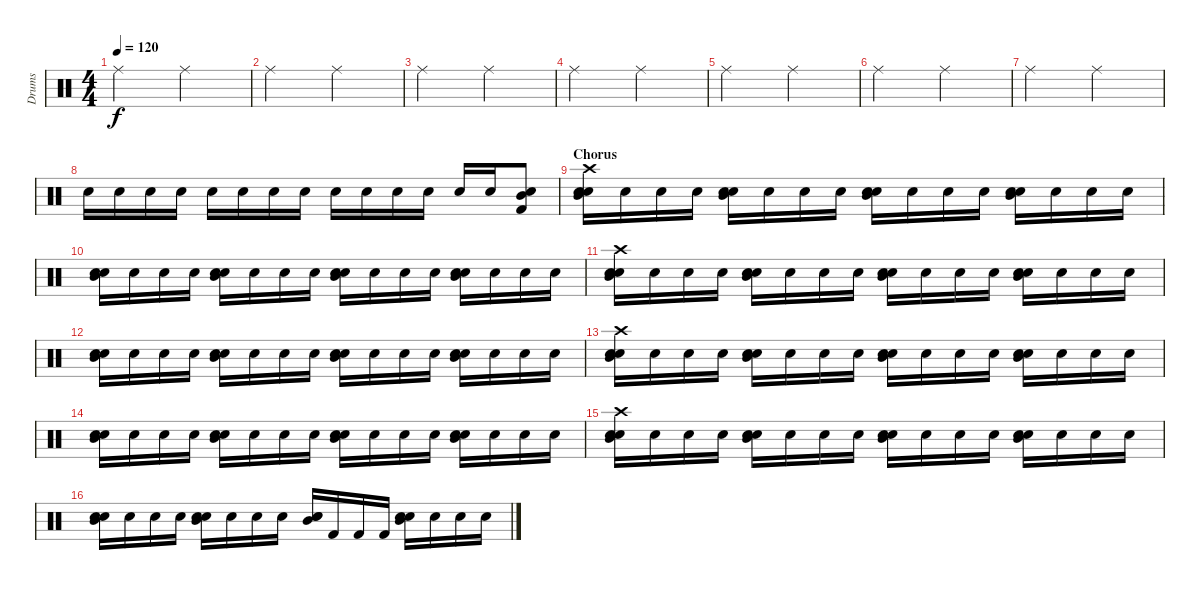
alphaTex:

\track ("Drums" "Drums") {instrument percussion}
\staff {score}
\articulation defaults
\ts (4 4)
\tempo 120
\clef neutral
\ks c "Ride (middle)".2{dy f} "Ride (middle)".2
|
"Ride (middle)".2 "Ride (middle)".2 |
"Ride (middle)".2 "Ride (middle)".2 |
"Ride (middle)".2 "Ride (middle)".2 |
"Ride (middle)".2 "Ride (middle)".2 |
"Ride (middle)".2 "Ride (middle)".2 |
"Ride (middle)".2 "Ride (middle)".2 |
"Snare (hit) 2".16 "Snare (hit) 2".16 "Snare (hit) 2".16 "Snare (hit) 2".16 "Snare (hit) 2".16 "Snare (hit) 2".16 "Snare (hit) 2".16 "Snare (hit) 2".16 "Snare (hit) 2".16 "Snare (hit) 2".16 "Snare (hit) 2".16 "Snare (hit) 2".16 "Snare (hit) 2".16 "Snare (hit) 2".16 ("Electric Snare (hit)" "Mid Tom (hit)" "Kick (hit) 2").8 |
\section ("" "Chorus")
("Electric Snare (hit)" "Snare (hit) 2" "Mid Tom (hit)" "Crash high (hit)").16 "Snare (hit) 2".16 "Snare (hit) 2".16 "Snare (hit) 2".16 ("Mid Tom (hit)" "Snare (hit) 2" "Electric Snare (hit)").16 "Snare (hit) 2".16 "Snare (hit) 2".16 "Snare (hit) 2".16 ("Mid Tom (hit)" "Snare (hit) 2" "Electric Snare (hit)").16 "Snare (hit) 2".16 "Snare (hit) 2".16 "Snare (hit) 2".16 ("Mid Tom (hit)" "Snare (hit) 2" "Electric Snare (hit)").16 "Snare (hit) 2".16 "Snare (hit) 2".16 "Snare (hit) 2".16 |
("Electric Snare (hit)" "Snare (hit) 2" "Mid Tom (hit)").16 "Snare (hit) 2".16 "Snare (hit) 2".16 "Snare (hit) 2".16 ("Mid Tom (hit)" "Snare (hit) 2" "Electric Snare (hit)").16 "Snare (hit) 2".16 "Snare (hit) 2".16 "Snare (hit) 2".16 ("Mid Tom (hit)" "Snare (hit) 2" "Electric Snare (hit)").16 "Snare (hit) 2".16 "Snare (hit) 2".16 "Snare (hit) 2".16 ("Mid Tom (hit)" "Snare (hit) 2" "Electric Snare (hit)").16 "Snare (hit) 2".16 "Snare (hit) 2".16 "Snare (hit) 2".16 |
("Electric Snare (hit)" "Snare (hit) 2" "Mid Tom (hit)" "Crash high (hit)").16 "Snare (hit) 2".16 "Snare (hit) 2".16 "Snare (hit) 2".16 ("Mid Tom (hit)" "Snare (hit) 2" "Electric Snare (hit)").16 "Snare (hit) 2".16 "Snare (hit) 2".16 "Snare (hit) 2".16 ("Mid Tom (hit)" "Snare (hit) 2" "Electric Snare (hit)").16 "Snare (hit) 2".16 "Snare (hit) 2".16 "Snare (hit) 2".16 ("Mid Tom (hit)" "Snare (hit) 2" "Electric Snare (hit)").16 "Snare (hit) 2".16 "Snare (hit) 2".16 "Snare (hit) 2".16 |
("Electric Snare (hit)" "Snare (hit) 2" "Mid Tom (hit)").16 "Snare (hit) 2".16 "Snare (hit) 2".16 "Snare (hit) 2".16 ("Mid Tom (hit)" "Snare (hit) 2" "Electric Snare (hit)").16 "Snare (hit) 2".16 "Snare (hit) 2".16 "Snare (hit) 2".16 ("Mid Tom (hit)" "Snare (hit) 2" "Electric Snare (hit)").16 "Snare (hit) 2".16 "Snare (hit) 2".16 "Snare (hit) 2".16 ("Mid Tom (hit)" "Snare (hit) 2" "Electric Snare (hit)").16 "Snare (hit) 2".16 "Snare (hit) 2".16 "Snare (hit) 2".16 |
("Electric Snare (hit)" "Snare (hit) 2" "Mid Tom (hit)" "Crash high (hit)").16 "Snare (hit) 2".16 "Snare (hit) 2".16 "Snare (hit) 2".16 ("Mid Tom (hit)" "Snare (hit) 2" "Electric Snare (hit)").16 "Snare (hit) 2".16 "Snare (hit) 2".16 "Snare (hit) 2".16 ("Mid Tom (hit)" "Snare (hit) 2" "Electric Snare (hit)").16 "Snare (hit) 2".16 "Snare (hit) 2".16 "Snare (hit) 2".16 ("Mid Tom (hit)" "Snare (hit) 2" "Electric Snare (hit)").16 "Snare (hit) 2".16 "Snare (hit) 2".16 "Snare (hit) 2".16 |
("Electric Snare (hit)" "Snare (hit) 2" "Mid Tom (hit)").16 "Snare (hit) 2".16 "Snare (hit) 2".16 "Snare (hit) 2".16 ("Mid Tom (hit)" "Snare (hit) 2" "Electric Snare (hit)").16 "Snare (hit) 2".16 "Snare (hit) 2".16 "Snare (hit) 2".16 ("Mid Tom (hit)" "Snare (hit) 2" "Electric Snare (hit)").16 "Snare (hit) 2".16 "Snare (hit) 2".16 "Snare (hit) 2".16 ("Mid Tom (hit)" "Snare (hit) 2" "Electric Snare (hit)").16 "Snare (hit) 2".16 "Snare (hit) 2".16 "Snare (hit) 2".16 |
("Electric Snare (hit)" "Snare (hit) 2" "Mid Tom (hit)" "Crash high (hit)").16 "Snare (hit) 2".16 "Snare (hit) 2".16 "Snare (hit) 2".16 ("Mid Tom (hit)" "Snare (hit) 2" "Electric Snare (hit)").16 "Snare (hit) 2".16 "Snare (hit) 2".16 "Snare (hit) 2".16 ("Mid Tom (hit)" "Snare (hit) 2" "Electric Snare (hit)").16 "Snare (hit) 2".16 "Snare (hit) 2".16 "Snare (hit) 2".16 ("Mid Tom (hit)" "Snare (hit) 2" "Electric Snare (hit)").16 "Snare (hit) 2".16 "Snare (hit) 2".16 "Snare (hit) 2".16 |
("Electric Snare (hit)" "Snare (hit) 2" "Mid Tom (hit)").16 "Snare (hit) 2".16 "Snare (hit) 2".16 "Snare (hit) 2".16 ("Mid Tom (hit)" "Snare (hit) 2" "Electric Snare (hit)").16 "Snare (hit) 2".16 "Snare (hit) 2".16 "Snare (hit) 2".16 ("Mid Tom (hit)" "Snare (hit) 2" "Electric Snare (hit)").16 "Kick (hit) 2".16 "Kick (hit) 2".16 "Kick (hit) 2".16 ("Mid Tom (hit)" "Snare (hit) 2" "Electric Snare (hit)").16 "Electric Snare (hit)".16 "Electric Snare (hit)".16 "Electric Snare (hit)".16
